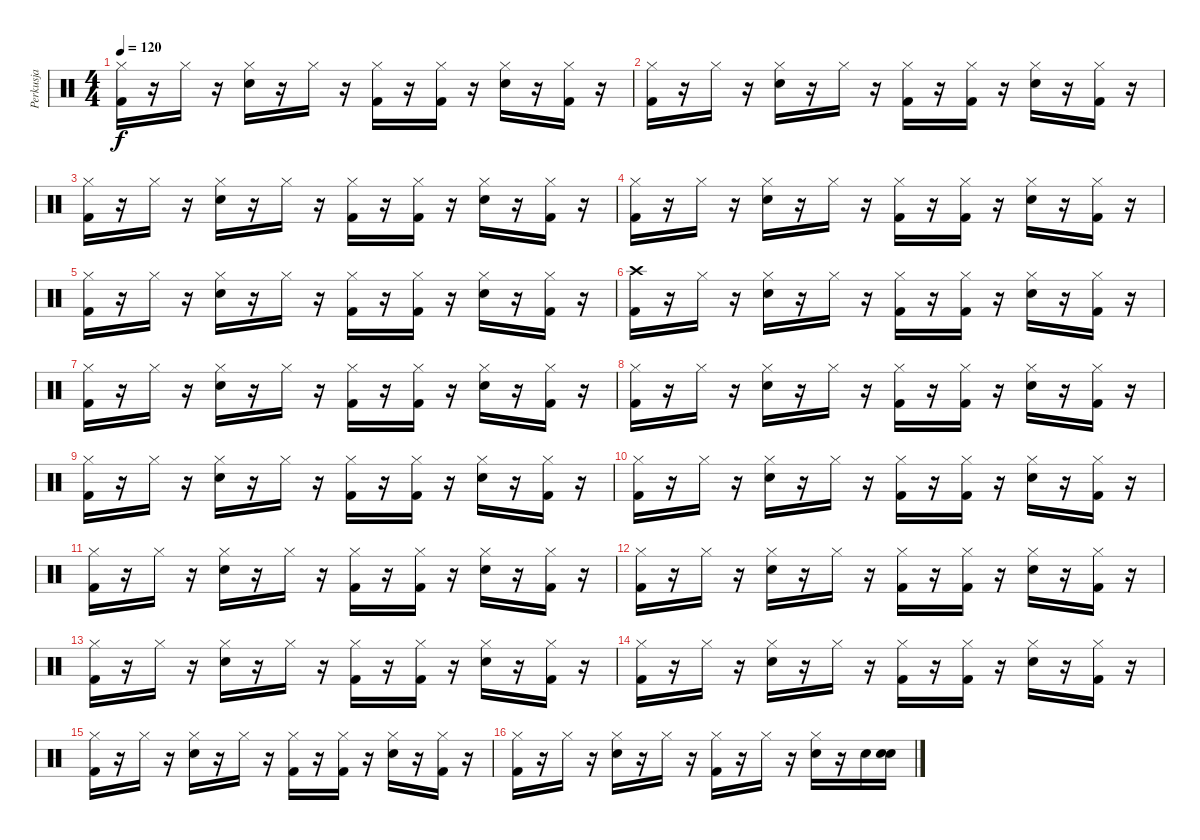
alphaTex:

\track ("Perkusja" "Perkusja") {instrument percussion}
\staff {score}
\articulation defaults
\ts (4 4)
\tempo 120
\clef neutral
\ks c
("Hi-Hat (closed)" "Kick (hit) 2").16{dy f} r.16 "Hi-Hat (closed)".16 r.16 ("Hi-Hat (closed)" "Snare (hit) 2").16 r.16 "Hi-Hat (closed)".16 r.16 ("Kick (hit) 2" "Hi-Hat (closed)").16 r.16 ("Kick (hit) 2" "Hi-Hat (closed)").16 r.16 ("Snare (hit) 2" "Hi-Hat (closed)").16 r.16 ("Kick (hit) 2" "Hi-Hat (closed)").16 r.16 |
("Hi-Hat (closed)" "Kick (hit) 2").16 r.16 "Hi-Hat (closed)".16 r.16 ("Snare (hit) 2" "Hi-Hat (closed)").16 r.16 "Hi-Hat (closed)".16 r.16 ("Hi-Hat (closed)" "Kick (hit) 2").16 r.16 ("Kick (hit) 2" "Hi-Hat (closed)").16 r.16 ("Hi-Hat (closed)" "Snare (hit) 2").16 r.16 ("Hi-Hat (closed)" "Kick (hit) 2").16 r.16 |
("Hi-Hat (closed)" "Kick (hit) 2").16 r.16 "Hi-Hat (closed)".16 r.16 ("Snare (hit) 2" "Hi-Hat (closed)").16 r.16 "Hi-Hat (closed)".16 r.16 ("Hi-Hat (closed)" "Kick (hit) 2").16 r.16 ("Hi-Hat (closed)" "Kick (hit) 2").16 r.16 ("Hi-Hat (closed)" "Snare (hit) 2").16 r.16 ("Hi-Hat (closed)" "Kick (hit) 2").16 r.16 |
("Kick (hit) 2" "Hi-Hat (closed)").16 r.16 "Hi-Hat (closed)".16 r.16 ("Hi-Hat (closed)" "Snare (hit) 2").16 r.16 "Hi-Hat (closed)".16 r.16 ("Kick (hit) 2" "Hi-Hat (closed)").16 r.16 ("Kick (hit) 2" "Hi-Hat (closed)").16 r.16 ("Hi-Hat (closed)" "Snare (hit) 2").16 r.16 ("Kick (hit) 2" "Hi-Hat (closed)").16 r.16 |
("Hi-Hat (closed)" "Kick (hit) 2").16 r.16 "Hi-Hat (closed)".16 r.16 ("Hi-Hat (closed)" "Snare (hit) 2").16 r.16 "Hi-Hat (closed)".16 r.16 ("Kick (hit) 2" "Hi-Hat (closed)").16 r.16 ("Hi-Hat (closed)" "Kick (hit) 2").16 r.16 ("Snare (hit) 2" "Hi-Hat (closed)").16 r.16 ("Hi-Hat (closed)" "Kick (hit) 2").16 r.16 |
("Crash high (hit)" "Kick (hit) 2").16 r.16 "Hi-Hat (closed)".16 r.16 ("Snare (hit) 2" "Hi-Hat (closed)").16 r.16 "Hi-Hat (closed)".16 r.16 ("Hi-Hat (closed)" "Kick (hit) 2").16 r.16 ("Kick (hit) 2" "Hi-Hat (closed)").16 r.16 ("Snare (hit) 2" "Hi-Hat (closed)").16 r.16 ("Hi-Hat (closed)" "Kick (hit) 2").16 r.16 |
("Kick (hit) 2" "Hi-Hat (closed)").16 r.16 "Hi-Hat (closed)".16 r.16 ("Snare (hit) 2" "Hi-Hat (closed)").16 r.16 "Hi-Hat (closed)".16 r.16 ("Hi-Hat (closed)" "Kick (hit) 2").16 r.16 ("Kick (hit) 2" "Hi-Hat (closed)").16 r.16 ("Hi-Hat (closed)" "Snare (hit) 2").16 r.16 ("Kick (hit) 2" "Hi-Hat (closed)").16 r.16 |
("Hi-Hat (closed)" "Kick (hit) 2").16 r.16 "Hi-Hat (closed)".16 r.16 ("Hi-Hat (closed)" "Snare (hit) 2").16 r.16 "Hi-Hat (closed)".16 r.16 ("Hi-Hat (closed)" "Kick (hit) 2").16 r.16 ("Kick (hit) 2" "Hi-Hat (closed)").16 r.16 ("Hi-Hat (closed)" "Snare (hit) 2").16 r.16 ("Kick (hit) 2" "Hi-Hat (closed)").16 r.16 |
("Kick (hit) 2" "Hi-Hat (closed)").16 r.16 "Hi-Hat (closed)".16 r.16 ("Snare (hit) 2" "Hi-Hat (closed)").16 r.16 "Hi-Hat (closed)".16 r.16 ("Hi-Hat (closed)" "Kick (hit) 2").16 r.16 ("Kick (hit) 2" "Hi-Hat (closed)").16 r.16 ("Hi-Hat (closed)" "Snare (hit) 2").16 r.16 ("Kick (hit) 2" "Hi-Hat (closed)").16 r.16 |
("Kick (hit) 2" "Hi-Hat (closed)").16 r.16 "Hi-Hat (closed)".16 r.16 ("Hi-Hat (closed)" "Snare (hit) 2").16 r.16 "Hi-Hat (closed)".16 r.16 ("Kick (hit) 2" "Hi-Hat (closed)").16 r.16 ("Hi-Hat (closed)" "Kick (hit) 2").16 r.16 ("Hi-Hat (closed)" "Snare (hit) 2").16 r.16 ("Hi-Hat (closed)" "Kick (hit) 2").16 r.16 |
("Hi-Hat (closed)" "Kick (hit) 2").16 r.16 "Hi-Hat (closed)".16 r.16 ("Snare (hit) 2" "Hi-Hat (closed)").16 r.16 "Hi-Hat (closed)".16 r.16 ("Hi-Hat (closed)" "Kick (hit) 2").16 r.16 ("Kick (hit) 2" "Hi-Hat (closed)").16 r.16 ("Hi-Hat (closed)" "Snare (hit) 2").16 r.16 ("Kick (hit) 2" "Hi-Hat (closed)").16 r.16 |
("Kick (hit) 2" "Hi-Hat (closed)").16 r.16 "Hi-Hat (closed)".16 r.16 ("Hi-Hat (closed)" "Snare (hit) 2").16 r.16 "Hi-Hat (closed)".16 r.16 ("Hi-Hat (closed)" "Kick (hit) 2").16 r.16 ("Kick (hit) 2" "Hi-Hat (closed)").16 r.16 ("Hi-Hat (closed)" "Snare (hit) 2").16 r.16 ("Kick (hit) 2" "Hi-Hat (closed)").16 r.16 |
("Kick (hit) 2" "Hi-Hat (closed)").16 r.16 "Hi-Hat (closed)".16 r.16 ("Hi-Hat (closed)" "Snare (hit) 2").16 r.16 "Hi-Hat (closed)".16 r.16 ("Hi-Hat (closed)" "Kick (hit) 2").16 r.16 ("Kick (hit) 2" "Hi-Hat (closed)").16 r.16 ("Snare (hit) 2" "Hi-Hat (closed)").16 r.16 ("Kick (hit) 2" "Hi-Hat (closed)").16 r.16 |
("Hi-Hat (closed)" "Kick (hit) 2").16 r.16 "Hi-Hat (closed)".16 r.16 ("Hi-Hat (closed)" "Snare (hit) 2").16 r.16 "Hi-Hat (closed)".16 r.16 ("Kick (hit) 2" "Hi-Hat (closed)").16 r.16 ("Kick (hit) 2" "Hi-Hat (closed)").16 r.16 ("Hi-Hat (closed)" "Snare (hit) 2").16 r.16 ("Kick (hit) 2" "Hi-Hat (closed)").16 r.16 |
("Kick (hit) 2" "Hi-Hat (closed)").16 r.16 "Hi-Hat (closed)".16 r.16 ("Hi-Hat (closed)" "Snare (hit) 2").16 r.16 "Hi-Hat (closed)".16 r.16 ("Hi-Hat (closed)" "Kick (hit) 2").16 r.16 ("Hi-Hat (closed)" "Kick (hit) 2").16 r.16 ("Snare (hit) 2" "Hi-Hat (closed)").16 r.16 ("Hi-Hat (closed)" "Kick (hit) 2").16 r.16 |
("Kick (hit) 2" "Hi-Hat (closed)").16 r.16 "Hi-Hat (closed)".16 r.16 ("Snare (hit) 2" "Hi-Hat (closed)").16 r.16 "Hi-Hat (closed)".16 r.16 ("Hi-Hat (closed)" "Kick (hit) 2").16 r.16 "Hi-Hat (closed)".16 r.16 ("Snare (hit) 2" "Hi-Hat (closed)").16 r.16 "Snare (hit) 2".16 ("Snare (hit)" "Snare (hit) 2").16
